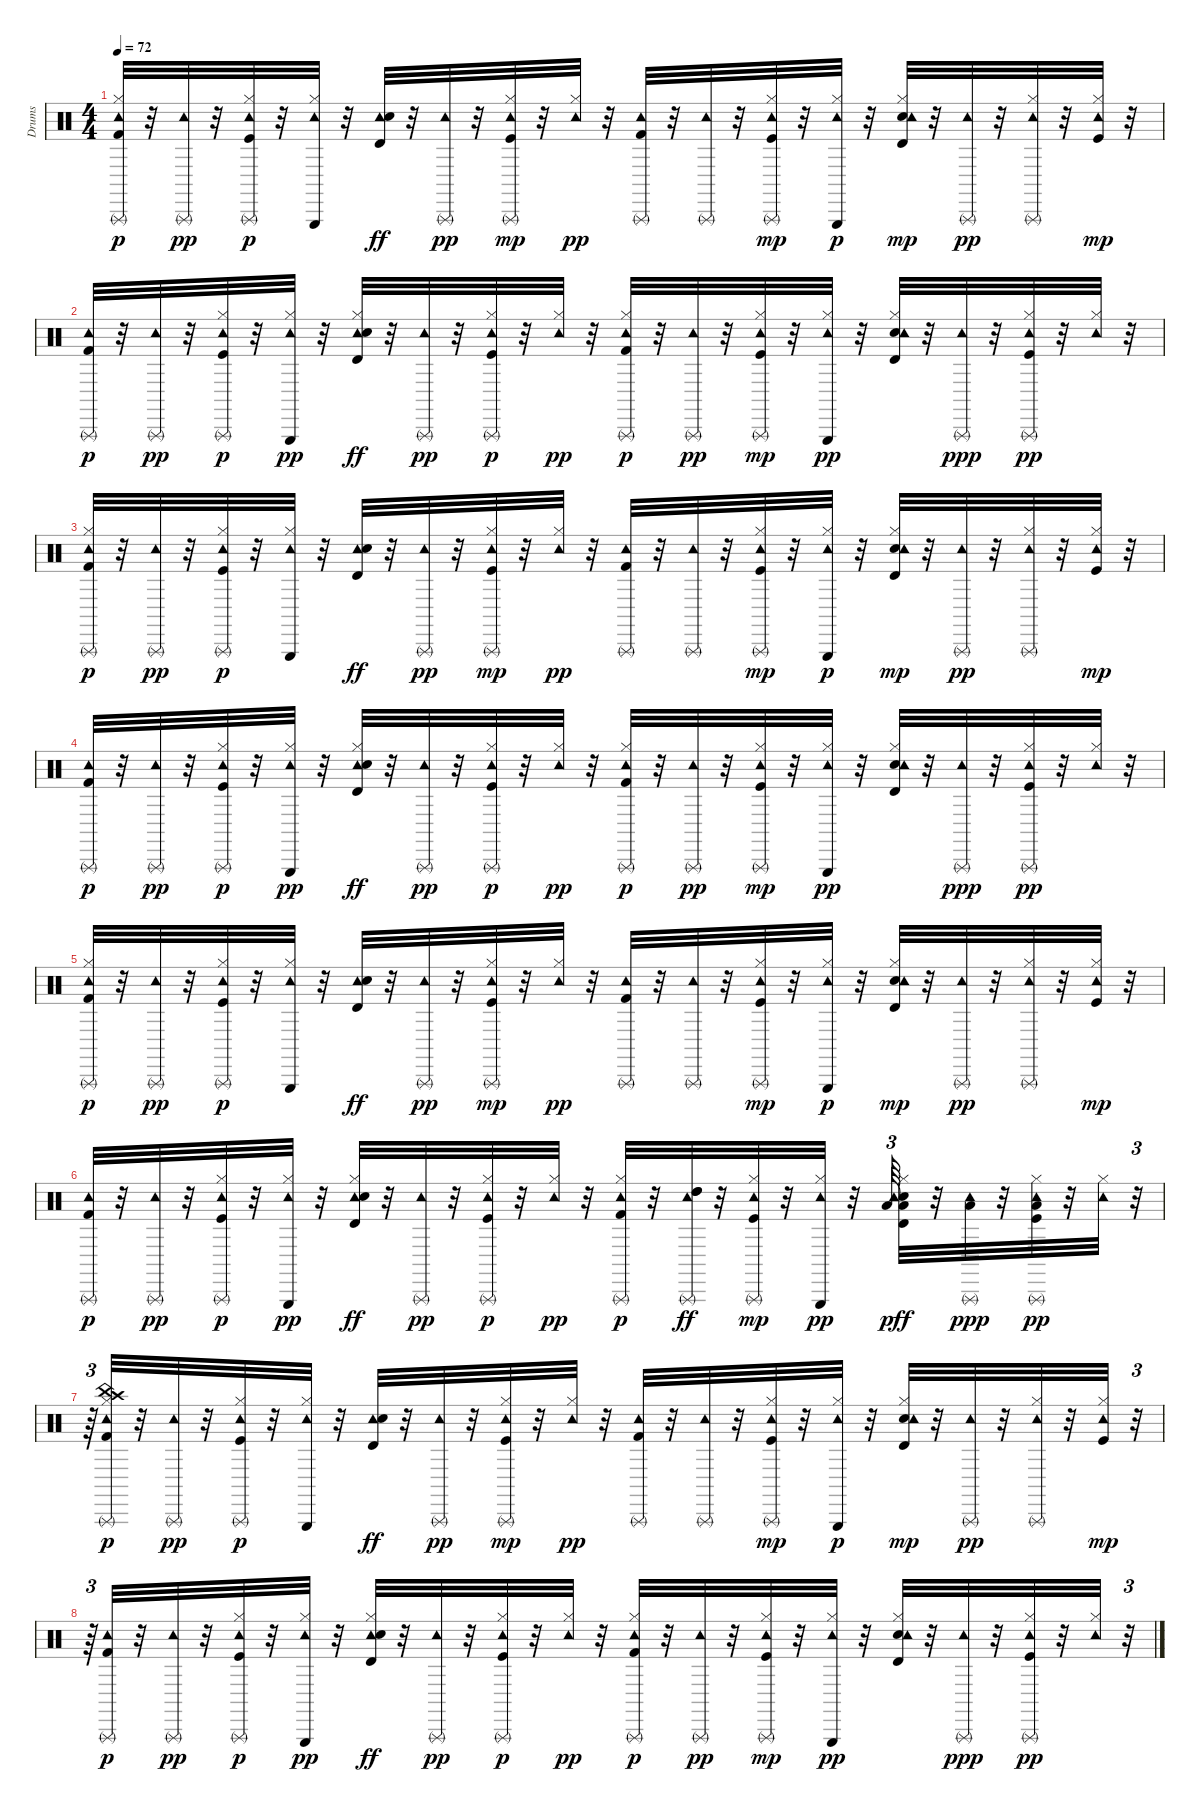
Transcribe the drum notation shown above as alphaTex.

\track ("Drums" "Drums") {instrument percussion}
\staff {score}
\articulation defaults
\ts (4 4)
\tempo 72
\clef neutral
\ks c
("Hi-Hat (closed)" "Tambourine (hit)" "Triangle (rnute)" "Kick (hit) 2").32{dy p} r.32 ("Triangle (rnute)" "Tambourine (hit)").32{dy pp} r.32 ("Kick (hit)" "Hi-Hat (closed)" "Tambourine (hit)" "Triangle (rnute)").32{dy p} r.32 ("Hi-Hat (closed)" "Tambourine (hit)" "Triangle (hit)").32 r.32 ("Tambourine (hit)" "Electric Snare (hit)" "Timbale high (hit)").32{dy ff} r.32 ("Triangle (rnute)" "Tambourine (hit)").32{dy pp} r.32 ("Kick (hit)" "Hi-Hat (closed)" "Tambourine (hit)" "Triangle (rnute)").32{dy mp} r.32 ("Hi-Hat (closed)" "Tambourine (hit)").32{dy pp} r.32 ("Tambourine (hit)" "Kick (hit) 2" "Triangle (rnute)").32 r.32 ("Triangle (rnute)" "Tambourine (hit)").32 r.32 ("Hi-Hat (closed)" "Triangle (rnute)" "Tambourine (hit)" "Kick (hit)").32{dy mp} r.32 ("Hi-Hat (closed)" "Tambourine (hit)" "Triangle (hit)").32{dy p} r.32 ("Timbale high (hit)" "Electric Snare (hit)" "Tambourine (hit)" "Hi-Hat (closed)").32{dy mp} r.32 ("Tambourine (hit)" "Triangle (rnute)").32{dy pp} r.32 ("Tambourine (hit)" "Hi-Hat (closed)" "Triangle (rnute)").32 r.32 ("Kick (hit)" "Tambourine (hit)" "Hi-Hat (closed)").32{dy mp} r.32 |
("Kick (hit) 2" "Tambourine (hit)" "Triangle (rnute)").32{dy p} r.32 ("Triangle (rnute)" "Tambourine (hit)").32{dy pp} r.32 ("Kick (hit)" "Hi-Hat (closed)" "Triangle (rnute)" "Tambourine (hit)").32{dy p} r.32 ("Hi-Hat (closed)" "Triangle (hit)" "Tambourine (hit)").32{dy pp} r.32 ("Hi-Hat (closed)" "Tambourine (hit)" "Electric Snare (hit)" "Timbale high (hit)").32{dy ff} r.32 ("Tambourine (hit)" "Triangle (rnute)").32{dy pp} r.32 ("Kick (hit)" "Hi-Hat (closed)" "Tambourine (hit)" "Triangle (rnute)").32{dy p} r.32 ("Hi-Hat (closed)" "Tambourine (hit)").32{dy pp} r.32 ("Hi-Hat (closed)" "Triangle (rnute)" "Tambourine (hit)" "Kick (hit) 2").32{dy p} r.32 ("Triangle (rnute)" "Tambourine (hit)").32{dy pp} r.32 ("Hi-Hat (closed)" "Triangle (rnute)" "Tambourine (hit)" "Kick (hit)").32{dy mp} r.32 ("Hi-Hat (closed)" "Triangle (hit)" "Tambourine (hit)").32{dy pp} r.32 ("Electric Snare (hit)" "Timbale high (hit)" "Hi-Hat (closed)" "Tambourine (hit)").32 r.32 ("Triangle (rnute)" "Tambourine (hit)").32{dy ppp} r.32 ("Kick (hit)" "Hi-Hat (closed)" "Triangle (rnute)" "Tambourine (hit)").32{dy pp} r.32 ("Hi-Hat (closed)" "Tambourine (hit)").32 r.32 |
("Hi-Hat (closed)" "Tambourine (hit)" "Triangle (rnute)" "Kick (hit) 2").32{dy p} r.32 ("Triangle (rnute)" "Tambourine (hit)").32{dy pp} r.32 ("Kick (hit)" "Hi-Hat (closed)" "Tambourine (hit)" "Triangle (rnute)").32{dy p} r.32 ("Hi-Hat (closed)" "Tambourine (hit)" "Triangle (hit)").32 r.32 ("Tambourine (hit)" "Electric Snare (hit)" "Timbale high (hit)").32{dy ff} r.32 ("Triangle (rnute)" "Tambourine (hit)").32{dy pp} r.32 ("Kick (hit)" "Hi-Hat (closed)" "Tambourine (hit)" "Triangle (rnute)").32{dy mp} r.32 ("Hi-Hat (closed)" "Tambourine (hit)").32{dy pp} r.32 ("Tambourine (hit)" "Kick (hit) 2" "Triangle (rnute)").32 r.32 ("Triangle (rnute)" "Tambourine (hit)").32 r.32 ("Hi-Hat (closed)" "Triangle (rnute)" "Tambourine (hit)" "Kick (hit)").32{dy mp} r.32 ("Hi-Hat (closed)" "Tambourine (hit)" "Triangle (hit)").32{dy p} r.32 ("Timbale high (hit)" "Electric Snare (hit)" "Tambourine (hit)" "Hi-Hat (closed)").32{dy mp} r.32 ("Tambourine (hit)" "Triangle (rnute)").32{dy pp} r.32 ("Tambourine (hit)" "Hi-Hat (closed)" "Triangle (rnute)").32 r.32 ("Kick (hit)" "Tambourine (hit)" "Hi-Hat (closed)").32{dy mp} r.32 |
("Kick (hit) 2" "Tambourine (hit)" "Triangle (rnute)").32{dy p} r.32 ("Triangle (rnute)" "Tambourine (hit)").32{dy pp} r.32 ("Kick (hit)" "Hi-Hat (closed)" "Triangle (rnute)" "Tambourine (hit)").32{dy p} r.32 ("Hi-Hat (closed)" "Triangle (hit)" "Tambourine (hit)").32{dy pp} r.32 ("Hi-Hat (closed)" "Tambourine (hit)" "Electric Snare (hit)" "Timbale high (hit)").32{dy ff} r.32 ("Tambourine (hit)" "Triangle (rnute)").32{dy pp} r.32 ("Kick (hit)" "Hi-Hat (closed)" "Tambourine (hit)" "Triangle (rnute)").32{dy p} r.32 ("Hi-Hat (closed)" "Tambourine (hit)").32{dy pp} r.32 ("Hi-Hat (closed)" "Triangle (rnute)" "Tambourine (hit)" "Kick (hit) 2").32{dy p} r.32 ("Triangle (rnute)" "Tambourine (hit)").32{dy pp} r.32 ("Hi-Hat (closed)" "Triangle (rnute)" "Tambourine (hit)" "Kick (hit)").32{dy mp} r.32 ("Hi-Hat (closed)" "Triangle (hit)" "Tambourine (hit)").32{dy pp} r.32 ("Electric Snare (hit)" "Timbale high (hit)" "Hi-Hat (closed)" "Tambourine (hit)").32 r.32 ("Triangle (rnute)" "Tambourine (hit)").32{dy ppp} r.32 ("Kick (hit)" "Hi-Hat (closed)" "Triangle (rnute)" "Tambourine (hit)").32{dy pp} r.32 ("Hi-Hat (closed)" "Tambourine (hit)").32 r.32 |
("Hi-Hat (closed)" "Tambourine (hit)" "Triangle (rnute)" "Kick (hit) 2").32{dy p} r.32 ("Triangle (rnute)" "Tambourine (hit)").32{dy pp} r.32 ("Kick (hit)" "Hi-Hat (closed)" "Tambourine (hit)" "Triangle (rnute)").32{dy p} r.32 ("Hi-Hat (closed)" "Tambourine (hit)" "Triangle (hit)").32 r.32 ("Tambourine (hit)" "Electric Snare (hit)" "Timbale high (hit)").32{dy ff} r.32 ("Triangle (rnute)" "Tambourine (hit)").32{dy pp} r.32 ("Kick (hit)" "Hi-Hat (closed)" "Tambourine (hit)" "Triangle (rnute)").32{dy mp} r.32 ("Hi-Hat (closed)" "Tambourine (hit)").32{dy pp} r.32 ("Tambourine (hit)" "Kick (hit) 2" "Triangle (rnute)").32 r.32 ("Triangle (rnute)" "Tambourine (hit)").32 r.32 ("Hi-Hat (closed)" "Triangle (rnute)" "Tambourine (hit)" "Kick (hit)").32{dy mp} r.32 ("Hi-Hat (closed)" "Tambourine (hit)" "Triangle (hit)").32{dy p} r.32 ("Timbale high (hit)" "Electric Snare (hit)" "Tambourine (hit)" "Hi-Hat (closed)").32{dy mp} r.32 ("Tambourine (hit)" "Triangle (rnute)").32{dy pp} r.32 ("Tambourine (hit)" "Hi-Hat (closed)" "Triangle (rnute)").32 r.32 ("Kick (hit)" "Tambourine (hit)" "Hi-Hat (closed)").32{dy mp} r.32 |
("Kick (hit) 2" "Tambourine (hit)" "Triangle (rnute)").32{dy p} r.32 ("Triangle (rnute)" "Tambourine (hit)").32{dy pp} r.32 ("Kick (hit)" "Hi-Hat (closed)" "Triangle (rnute)" "Tambourine (hit)").32{dy p} r.32 ("Hi-Hat (closed)" "Triangle (hit)" "Tambourine (hit)").32{dy pp} r.32 ("Hi-Hat (closed)" "Tambourine (hit)" "Electric Snare (hit)" "Timbale high (hit)").32{dy ff} r.32 ("Tambourine (hit)" "Triangle (rnute)").32{dy pp} r.32 ("Kick (hit)" "Hi-Hat (closed)" "Tambourine (hit)" "Triangle (rnute)").32{dy p} r.32 ("Hi-Hat (closed)" "Tambourine (hit)").32{dy pp} r.32 ("Hi-Hat (closed)" "Triangle (rnute)" "Tambourine (hit)" "Kick (hit) 2").32{dy p} r.32 ("High Tom (hit)" "Triangle (rnute)" "Tambourine (hit)" "High Tom (hit)").32{dy ff} r.32 ("Hi-Hat (closed)" "Triangle (rnute)" "Tambourine (hit)" "Kick (hit)").32{dy mp} r.32 ("Hi-Hat (closed)" "Triangle (hit)" "Tambourine (hit)").32{dy pp} r.32 "Low Tom (hit)".64{tu (3 2) dy p} ("Electric Snare (hit)" "Timbale high (hit)" "Hi-Hat (closed)" "Tambourine (hit)" "Low Tom (hit)").32{dy ff} r.32 ("Triangle (rnute)" "Low Floor Tom (hit)" "Tambourine (hit)").32{dy ppp} r.32 ("Kick (hit)" "Hi-Hat (closed)" "Triangle (rnute)" "Low Floor Tom (hit)" "Tambourine (hit)").32{dy pp} r.32 ("Hi-Hat (closed)" "Tambourine (hit)").32 r.32{tu (3 2)} |
r.64{tu (3 2)} ("Hi-Hat (closed)" "Crash high (hit)" "China (hit)" "Tambourine (hit)" "Triangle (rnute)" "Kick (hit) 2").32{dy p} r.32 ("Triangle (rnute)" "Tambourine (hit)").32{dy pp} r.32 ("Kick (hit)" "Hi-Hat (closed)" "Tambourine (hit)" "Triangle (rnute)").32{dy p} r.32 ("Hi-Hat (closed)" "Tambourine (hit)" "Triangle (hit)").32 r.32 ("Tambourine (hit)" "Electric Snare (hit)" "Timbale high (hit)").32{dy ff} r.32 ("Triangle (rnute)" "Tambourine (hit)").32{dy pp} r.32 ("Kick (hit)" "Hi-Hat (closed)" "Tambourine (hit)" "Triangle (rnute)").32{dy mp} r.32 ("Hi-Hat (closed)" "Tambourine (hit)").32{dy pp} r.32 ("Tambourine (hit)" "Kick (hit) 2" "Triangle (rnute)").32 r.32 ("Triangle (rnute)" "Tambourine (hit)").32 r.32 ("Hi-Hat (closed)" "Triangle (rnute)" "Tambourine (hit)" "Kick (hit)").32{dy mp} r.32 ("Hi-Hat (closed)" "Tambourine (hit)" "Triangle (hit)").32{dy p} r.32 ("Timbale high (hit)" "Electric Snare (hit)" "Tambourine (hit)" "Hi-Hat (closed)").32{dy mp} r.32 ("Tambourine (hit)" "Triangle (rnute)").32{dy pp} r.32 ("Tambourine (hit)" "Hi-Hat (closed)" "Triangle (rnute)").32 r.32 ("Kick (hit)" "Tambourine (hit)" "Hi-Hat (closed)").32{dy mp} r.32{tu (3 2)} |
r.64{tu (3 2)} ("Kick (hit) 2" "Tambourine (hit)" "Triangle (rnute)").32{dy p} r.32 ("Triangle (rnute)" "Tambourine (hit)").32{dy pp} r.32 ("Kick (hit)" "Hi-Hat (closed)" "Triangle (rnute)" "Tambourine (hit)").32{dy p} r.32 ("Hi-Hat (closed)" "Triangle (hit)" "Tambourine (hit)").32{dy pp} r.32 ("Hi-Hat (closed)" "Tambourine (hit)" "Electric Snare (hit)" "Timbale high (hit)").32{dy ff} r.32 ("Tambourine (hit)" "Triangle (rnute)").32{dy pp} r.32 ("Kick (hit)" "Hi-Hat (closed)" "Tambourine (hit)" "Triangle (rnute)").32{dy p} r.32 ("Hi-Hat (closed)" "Tambourine (hit)").32{dy pp} r.32 ("Hi-Hat (closed)" "Triangle (rnute)" "Tambourine (hit)" "Kick (hit) 2").32{dy p} r.32 ("Triangle (rnute)" "Tambourine (hit)").32{dy pp} r.32 ("Hi-Hat (closed)" "Triangle (rnute)" "Tambourine (hit)" "Kick (hit)").32{dy mp} r.32 ("Hi-Hat (closed)" "Triangle (hit)" "Tambourine (hit)").32{dy pp} r.32 ("Electric Snare (hit)" "Timbale high (hit)" "Hi-Hat (closed)" "Tambourine (hit)").32 r.32 ("Triangle (rnute)" "Tambourine (hit)").32{dy ppp} r.32 ("Kick (hit)" "Hi-Hat (closed)" "Triangle (rnute)" "Tambourine (hit)").32{dy pp} r.32 ("Hi-Hat (closed)" "Tambourine (hit)").32 r.32{tu (3 2)}
